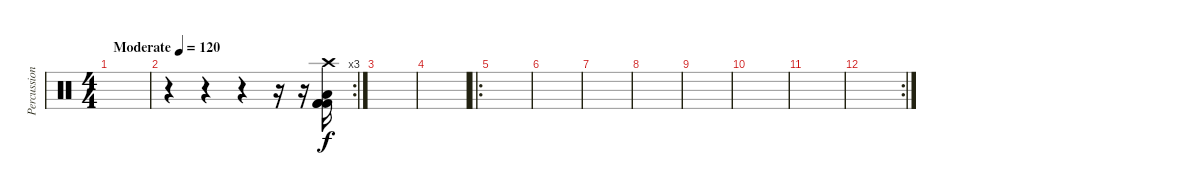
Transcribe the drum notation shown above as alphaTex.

\track ("Percussion" "Percussion") {instrument percussion}
\staff {score}
\articulation defaults
\ts (4 4)
\tempo (120 "Moderate")
\clef neutral
\ks c
|
\rc 3
r.4 r.4 r.4 r.16 r.16 ("Crash high (hit)" "Kick (hit) 2" "Kick (hit) 2" "Kick (hit) 2" "Low Floor Tom (hit)").16 |
|
|
\ro
|
|
|
|
|
|
|
\rc 2
